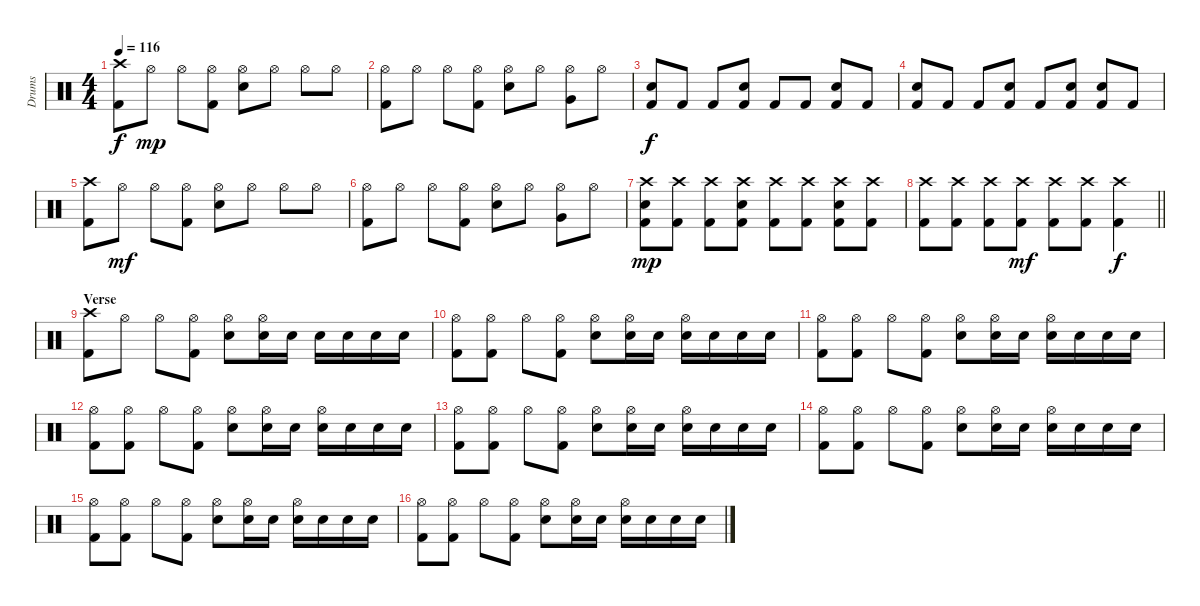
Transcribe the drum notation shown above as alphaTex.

\track ("Drums" "Drums") {instrument percussion}
\staff {score}
\articulation defaults
\ts (4 4)
\tempo 116
\clef neutral
\ks c
("Kick (hit) 2" "Crash high (hit)").8{dy f} "Hi-Hat (open)".8{dy mp} "Hi-Hat (open)".8 ("Kick (hit) 2" "Hi-Hat (open)").8 ("Snare (hit) 2" "Hi-Hat (open)").8 "Hi-Hat (open)".8 "Hi-Hat (open)".8 "Hi-Hat (open)".8 |
("Kick (hit) 2" "Hi-Hat (open)").8 "Hi-Hat (open)".8 "Hi-Hat (open)".8 ("Kick (hit) 2" "Hi-Hat (open)").8 ("Snare (hit) 2" "Hi-Hat (open)").8 "Hi-Hat (open)".8 ("Hi-Hat (open)" "Very Low Tom (hit)").8 "Hi-Hat (open)".8 |
("Kick (hit) 2" "Snare (hit) 2").8{dy f} "Kick (hit) 2".8 "Kick (hit) 2".8 ("Kick (hit) 2" "Snare (hit) 2").8 "Kick (hit) 2".8 "Kick (hit) 2".8 ("Kick (hit) 2" "Snare (hit) 2").8 "Kick (hit) 2".8 |
("Kick (hit) 2" "Snare (hit) 2").8 "Kick (hit) 2".8 "Kick (hit) 2".8 ("Kick (hit) 2" "Snare (hit) 2").8 "Kick (hit) 2".8 ("Kick (hit) 2" "Snare (hit) 2").8 ("Kick (hit) 2" "Snare (hit) 2").8 "Kick (hit) 2".8 |
("Kick (hit) 2" "Crash high (hit)").8 "Hi-Hat (open)".8{dy mf} "Hi-Hat (open)".8 ("Kick (hit) 2" "Hi-Hat (open)").8 ("Snare (hit) 2" "Hi-Hat (open)").8 "Hi-Hat (open)".8 "Hi-Hat (open)".8 "Hi-Hat (open)".8 |
("Kick (hit) 2" "Hi-Hat (open)").8 "Hi-Hat (open)".8 "Hi-Hat (open)".8 ("Kick (hit) 2" "Hi-Hat (open)").8 ("Snare (hit) 2" "Hi-Hat (open)").8 "Hi-Hat (open)".8 ("Hi-Hat (open)" "Very Low Tom (hit)").8 "Hi-Hat (open)".8 |
("Kick (hit) 2" "Snare (hit) 2" "Crash high (hit)").8{dy mp} ("Kick (hit) 2" "Crash high (hit)").8 ("Kick (hit) 2" "Crash high (hit)").8 ("Kick (hit) 2" "Snare (hit) 2" "Crash high (hit)").8 ("Kick (hit) 2" "Crash high (hit)").8 ("Kick (hit) 2" "Crash high (hit)").8 ("Kick (hit) 2" "Snare (hit) 2" "Crash high (hit)").8 ("Kick (hit) 2" "Crash high (hit)").8 |
\barLineRight lightlight
("Kick (hit) 2" "Crash high (hit)").8 ("Kick (hit) 2" "Crash high (hit)").8 ("Kick (hit) 2" "Crash high (hit)").8 ("Kick (hit) 2" "Crash high (hit)").8{dy mf} ("Kick (hit) 2" "Crash high (hit)").8 ("Kick (hit) 2" "Crash high (hit)").8 ("Kick (hit) 2" "Crash high (hit)").4{dy f} |
\section ("" "Verse")
("Kick (hit) 2" "Crash high (hit)").8 "Hi-Hat (open)".8 "Hi-Hat (open)".8 ("Kick (hit) 2" "Hi-Hat (open)").8 ("Snare (hit) 2" "Hi-Hat (open)").8 ("Snare (hit) 2" "Hi-Hat (open)").16 "Snare (hit) 2".16 "Snare (hit) 2".16 "Snare (hit) 2".16 "Snare (hit) 2".16 "Snare (hit) 2".16 |
("Kick (hit) 2" "Hi-Hat (open)").8 ("Kick (hit) 2" "Hi-Hat (open)").8 "Hi-Hat (open)".8 ("Kick (hit) 2" "Hi-Hat (open)").8 ("Snare (hit) 2" "Hi-Hat (open)").8 ("Snare (hit) 2" "Hi-Hat (open)").16 "Snare (hit) 2".16 ("Snare (hit) 2" "Hi-Hat (open)").16 "Snare (hit) 2".16 "Snare (hit) 2".16 "Snare (hit) 2".16 |
("Kick (hit) 2" "Hi-Hat (open)").8 ("Kick (hit) 2" "Hi-Hat (open)").8 "Hi-Hat (open)".8 ("Kick (hit) 2" "Hi-Hat (open)").8 ("Snare (hit) 2" "Hi-Hat (open)").8 ("Snare (hit) 2" "Hi-Hat (open)").16 "Snare (hit) 2".16 ("Snare (hit) 2" "Hi-Hat (open)").16 "Snare (hit) 2".16 "Snare (hit) 2".16 "Snare (hit) 2".16 |
("Kick (hit) 2" "Hi-Hat (open)").8 ("Kick (hit) 2" "Hi-Hat (open)").8 "Hi-Hat (open)".8 ("Kick (hit) 2" "Hi-Hat (open)").8 ("Snare (hit) 2" "Hi-Hat (open)").8 ("Snare (hit) 2" "Hi-Hat (open)").16 "Snare (hit) 2".16 ("Snare (hit) 2" "Hi-Hat (open)").16 "Snare (hit) 2".16 "Snare (hit) 2".16 "Snare (hit) 2".16 |
("Kick (hit) 2" "Hi-Hat (open)").8 ("Kick (hit) 2" "Hi-Hat (open)").8 "Hi-Hat (open)".8 ("Kick (hit) 2" "Hi-Hat (open)").8 ("Snare (hit) 2" "Hi-Hat (open)").8 ("Snare (hit) 2" "Hi-Hat (open)").16 "Snare (hit) 2".16 ("Snare (hit) 2" "Hi-Hat (open)").16 "Snare (hit) 2".16 "Snare (hit) 2".16 "Snare (hit) 2".16 |
("Kick (hit) 2" "Hi-Hat (open)").8 ("Kick (hit) 2" "Hi-Hat (open)").8 "Hi-Hat (open)".8 ("Kick (hit) 2" "Hi-Hat (open)").8 ("Snare (hit) 2" "Hi-Hat (open)").8 ("Snare (hit) 2" "Hi-Hat (open)").16 "Snare (hit) 2".16 ("Snare (hit) 2" "Hi-Hat (open)").16 "Snare (hit) 2".16 "Snare (hit) 2".16 "Snare (hit) 2".16 |
("Kick (hit) 2" "Hi-Hat (open)").8 ("Kick (hit) 2" "Hi-Hat (open)").8 "Hi-Hat (open)".8 ("Kick (hit) 2" "Hi-Hat (open)").8 ("Snare (hit) 2" "Hi-Hat (open)").8 ("Snare (hit) 2" "Hi-Hat (open)").16 "Snare (hit) 2".16 ("Snare (hit) 2" "Hi-Hat (open)").16 "Snare (hit) 2".16 "Snare (hit) 2".16 "Snare (hit) 2".16 |
("Kick (hit) 2" "Hi-Hat (open)").8 ("Kick (hit) 2" "Hi-Hat (open)").8 "Hi-Hat (open)".8 ("Kick (hit) 2" "Hi-Hat (open)").8 ("Snare (hit) 2" "Hi-Hat (open)").8 ("Snare (hit) 2" "Hi-Hat (open)").16 "Snare (hit) 2".16 ("Snare (hit) 2" "Hi-Hat (open)").16 "Snare (hit) 2".16 "Snare (hit) 2".16 "Snare (hit) 2".16
